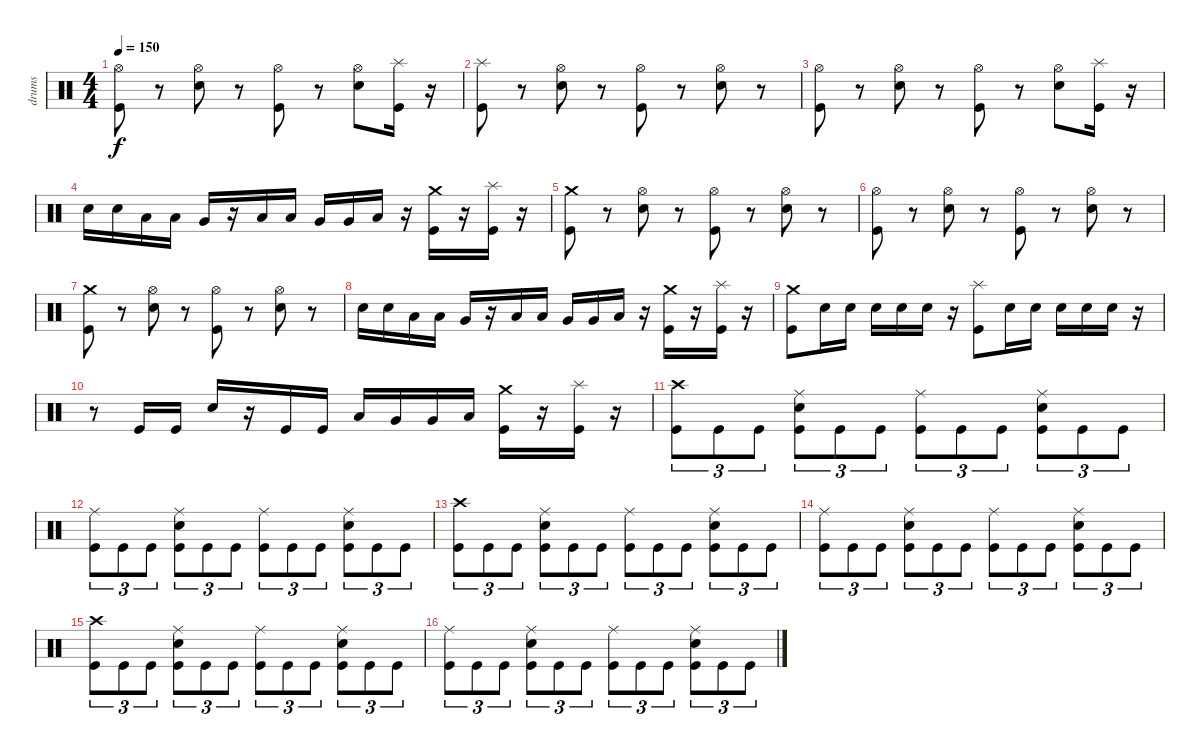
\track ("drums" "drums") {instrument percussion}
\staff {score}
\articulation defaults
\ts (4 4)
\tempo 150
\clef neutral
\ks c
("Hi-Hat (open)" "Kick (hit)").8{dy f} r.8 ("Hi-Hat (open)" "Electric Snare (hit)").8 r.8 ("Hi-Hat (open)" "Kick (hit)").8 r.8 ("Hi-Hat (open)" "Electric Snare (hit)").8 ("Splash (hit)" "Kick (hit)").16 r.16 |
("Splash (hit)" "Kick (hit)").8 r.8 ("Hi-Hat (open)" "Electric Snare (hit)").8 r.8 ("Hi-Hat (open)" "Kick (hit)").8 r.8 ("Hi-Hat (open)" "Electric Snare (hit)").8 r.8 |
("Hi-Hat (open)" "Kick (hit)").8 r.8 ("Hi-Hat (open)" "Electric Snare (hit)").8 r.8 ("Hi-Hat (open)" "Kick (hit)").8 r.8 ("Hi-Hat (open)" "Electric Snare (hit)").8 ("Splash (hit)" "Kick (hit)").16 r.16 |
"Electric Snare (hit)".16 "Electric Snare (hit)".16 "Low Tom (hit)".16 "Low Tom (hit)".16 "Very Low Tom (hit)".16 r.16 "Low Tom (hit)".16 "Low Tom (hit)".16 "Very Low Tom (hit)".16 "Very Low Tom (hit)".16 "Low Floor Tom (hit)".16 r.16 ("Crash medium (hit)" "Kick (hit)").16 r.16 ("Splash (hit)" "Kick (hit)").16 r.16 |
("Crash medium (hit)" "Kick (hit)").8 r.8 ("Hi-Hat (open)" "Electric Snare (hit)").8 r.8 ("Hi-Hat (open)" "Kick (hit)").8 r.8 ("Hi-Hat (open)" "Electric Snare (hit)").8 r.8 |
("Hi-Hat (open)" "Kick (hit)").8 r.8 ("Hi-Hat (open)" "Electric Snare (hit)").8 r.8 ("Hi-Hat (open)" "Kick (hit)").8 r.8 ("Hi-Hat (open)" "Electric Snare (hit)").8 r.8 |
("Crash medium (hit)" "Kick (hit)").8 r.8 ("Hi-Hat (open)" "Electric Snare (hit)").8 r.8 ("Hi-Hat (open)" "Kick (hit)").8 r.8 ("Hi-Hat (open)" "Electric Snare (hit)").8 r.8 |
"Electric Snare (hit)".16 "Electric Snare (hit)".16 "Low Tom (hit)".16 "Low Tom (hit)".16 "Very Low Tom (hit)".16 r.16 "Low Tom (hit)".16 "Low Tom (hit)".16 "Very Low Tom (hit)".16 "Very Low Tom (hit)".16 "Low Floor Tom (hit)".16 r.16 ("Crash medium (hit)" "Kick (hit)").16 r.16 ("Splash (hit)" "Kick (hit)").16 r.16 |
("Crash medium (hit)" "Kick (hit)").8 "Electric Snare (hit)".16 "Electric Snare (hit)".16 "Electric Snare (hit)".16 "Electric Snare (hit)".16 "Electric Snare (hit)".16 r.16 ("Splash (hit)" "Kick (hit)").8 "Electric Snare (hit)".16 "Electric Snare (hit)".16 "Electric Snare (hit)".16 "Electric Snare (hit)".16 "Electric Snare (hit)".16 r.16 |
r.8 "Kick (hit)".16 "Kick (hit)".16 "Electric Snare (hit)".16 r.16 "Kick (hit)".16 "Kick (hit)".16 "Low Tom (hit)".16 "Very Low Tom (hit)".16 "Very Low Tom (hit)".16 "Low Floor Tom (hit)".16 ("Crash medium (hit)" "Kick (hit)").16 r.16 ("Splash (hit)" "Kick (hit)").16 r.16 |
("Crash high (hit)" "Kick (hit)").8{tu (3 2)} "Kick (hit)".8{tu (3 2)} "Kick (hit)".8{tu (3 2)} ("Ride (middle)" "Electric Snare (hit)" "Kick (hit)").8{tu (3 2)} "Kick (hit)".8{tu (3 2)} "Kick (hit)".8{tu (3 2)} ("Ride (middle)" "Kick (hit)").8{tu (3 2)} "Kick (hit)".8{tu (3 2)} "Kick (hit)".8{tu (3 2)} ("Electric Snare (hit)" "Ride (middle)" "Kick (hit)").8{tu (3 2)} "Kick (hit)".8{tu (3 2)} "Kick (hit)".8{tu (3 2)} |
("Ride (middle)" "Kick (hit)").8{tu (3 2)} "Kick (hit)".8{tu (3 2)} "Kick (hit)".8{tu (3 2)} ("Ride (middle)" "Electric Snare (hit)" "Kick (hit)").8{tu (3 2)} "Kick (hit)".8{tu (3 2)} "Kick (hit)".8{tu (3 2)} ("Ride (middle)" "Kick (hit)").8{tu (3 2)} "Kick (hit)".8{tu (3 2)} "Kick (hit)".8{tu (3 2)} ("Electric Snare (hit)" "Ride (middle)" "Kick (hit)").8{tu (3 2)} "Kick (hit)".8{tu (3 2)} "Kick (hit)".8{tu (3 2)} |
("Crash high (hit)" "Kick (hit)").8{tu (3 2)} "Kick (hit)".8{tu (3 2)} "Kick (hit)".8{tu (3 2)} ("Ride (middle)" "Electric Snare (hit)" "Kick (hit)").8{tu (3 2)} "Kick (hit)".8{tu (3 2)} "Kick (hit)".8{tu (3 2)} ("Ride (middle)" "Kick (hit)").8{tu (3 2)} "Kick (hit)".8{tu (3 2)} "Kick (hit)".8{tu (3 2)} ("Electric Snare (hit)" "Ride (middle)" "Kick (hit)").8{tu (3 2)} "Kick (hit)".8{tu (3 2)} "Kick (hit)".8{tu (3 2)} |
("Ride (middle)" "Kick (hit)").8{tu (3 2)} "Kick (hit)".8{tu (3 2)} "Kick (hit)".8{tu (3 2)} ("Ride (middle)" "Electric Snare (hit)" "Kick (hit)").8{tu (3 2)} "Kick (hit)".8{tu (3 2)} "Kick (hit)".8{tu (3 2)} ("Ride (middle)" "Kick (hit)").8{tu (3 2)} "Kick (hit)".8{tu (3 2)} "Kick (hit)".8{tu (3 2)} ("Electric Snare (hit)" "Ride (middle)" "Kick (hit)").8{tu (3 2)} "Kick (hit)".8{tu (3 2)} "Kick (hit)".8{tu (3 2)} |
("Crash high (hit)" "Kick (hit)").8{tu (3 2)} "Kick (hit)".8{tu (3 2)} "Kick (hit)".8{tu (3 2)} ("Ride (middle)" "Electric Snare (hit)" "Kick (hit)").8{tu (3 2)} "Kick (hit)".8{tu (3 2)} "Kick (hit)".8{tu (3 2)} ("Ride (middle)" "Kick (hit)").8{tu (3 2)} "Kick (hit)".8{tu (3 2)} "Kick (hit)".8{tu (3 2)} ("Electric Snare (hit)" "Ride (middle)" "Kick (hit)").8{tu (3 2)} "Kick (hit)".8{tu (3 2)} "Kick (hit)".8{tu (3 2)} |
("Ride (middle)" "Kick (hit)").8{tu (3 2)} "Kick (hit)".8{tu (3 2)} "Kick (hit)".8{tu (3 2)} ("Ride (middle)" "Electric Snare (hit)" "Kick (hit)").8{tu (3 2)} "Kick (hit)".8{tu (3 2)} "Kick (hit)".8{tu (3 2)} ("Ride (middle)" "Kick (hit)").8{tu (3 2)} "Kick (hit)".8{tu (3 2)} "Kick (hit)".8{tu (3 2)} ("Electric Snare (hit)" "Ride (middle)" "Kick (hit)").8{tu (3 2)} "Kick (hit)".8{tu (3 2)} "Kick (hit)".8{tu (3 2)}
